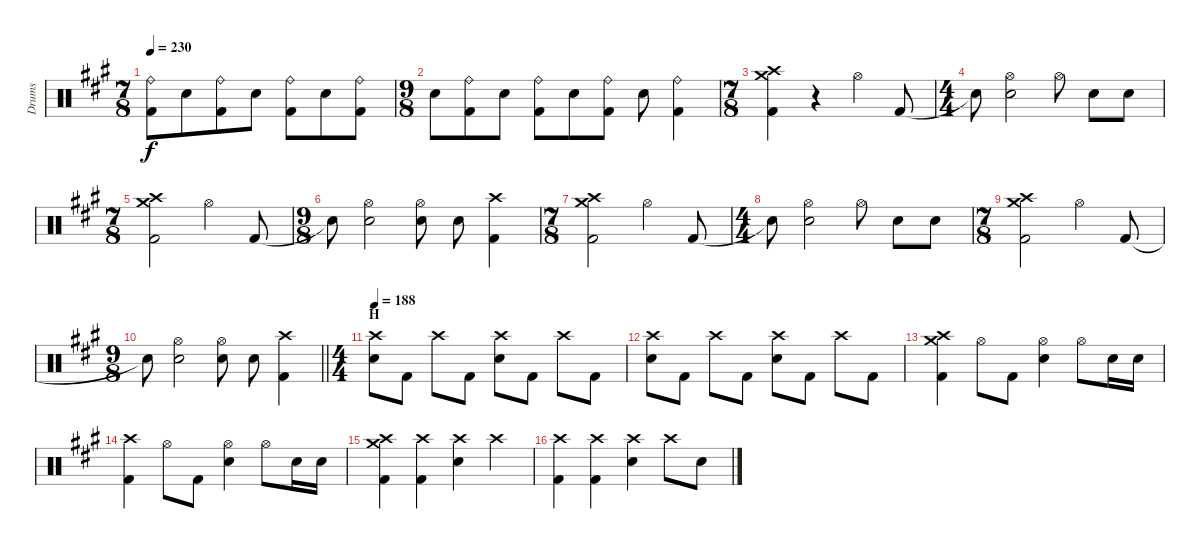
\track ("Drums" "Drums") {instrument percussion}
\staff {score}
\articulation defaults
\ts (7 8)
\tempo 230
\clef neutral
\ks f#minor
("Ride (bell)" "Kick (hit) 2").8{dy f} "Electric Snare (hit)".8 ("Ride (bell)" "Kick (hit) 2").8 "Electric Snare (hit)".8 ("Ride (bell)" "Kick (hit) 2").8 "Electric Snare (hit)".8 ("Ride (bell)" "Kick (hit) 2").8 |
\ts (9 8)
"Electric Snare (hit)".8 ("Ride (bell)" "Kick (hit) 2").8 "Electric Snare (hit)".8 ("Ride (bell)" "Kick (hit) 2").8 "Electric Snare (hit)".8 ("Ride (bell)" "Kick (hit) 2").8 "Electric Snare (hit)".8 ("Ride (bell)" "Kick (hit) 2").4 |
\ts (7 8)
("Crash medium (hit)" "Crash high (hit)" "Kick (hit) 2").4 r.4{volume 0} "Hi-Hat (open)".4{volume 14} "Kick (hit) 2".8 |
\ts (4 4)
"Snare (hit)"{t}.8 ("Hi-Hat (open)" "Electric Snare (hit)").2 "Hi-Hat (open)".8 "Electric Snare (hit)".8 "Electric Snare (hit)".8 |
\ts (7 8)
("Crash medium (hit)" "Crash high (hit)" "Kick (hit) 2").2 "Hi-Hat (open)".4 "Kick (hit) 2".8 |
\ts (9 8)
"Snare (hit)"{t}.8 ("Hi-Hat (open)" "Electric Snare (hit)").2 ("Hi-Hat (open)" "Electric Snare (hit)").8 "Electric Snare (hit)".8 ("Crash high (hit)" "Kick (hit) 2").4 |
\ts (7 8)
("Crash medium (hit)" "Crash high (hit)" "Kick (hit) 2").2 "Hi-Hat (open)".4 "Kick (hit) 2".8 |
\ts (4 4)
"Snare (hit)"{t}.8 ("Hi-Hat (open)" "Electric Snare (hit)").2 "Hi-Hat (open)".8 "Electric Snare (hit)".8 "Electric Snare (hit)".8 |
\ts (7 8)
("Crash medium (hit)" "Crash high (hit)" "Kick (hit) 2").2 "Hi-Hat (open)".4 "Kick (hit) 2".8 |
\ts (9 8)
\barLineRight lightlight "Snare (hit)"{t}.8
("Hi-Hat (open)" "Electric Snare (hit)").2 ("Hi-Hat (open)" "Electric Snare (hit)").8 "Electric Snare (hit)".8 ("Crash high (hit)" "Kick (hit) 2").4 |
\ts (4 4)
\section ("" "H")
\tempo 188
("Crash high (hit)" "Electric Snare (hit)").8 "Kick (hit) 2".8 "Crash high (hit)".8 "Kick (hit) 2".8 ("Crash high (hit)" "Electric Snare (hit)").8 "Kick (hit) 2".8 "Crash high (hit)".8 "Kick (hit) 2".8 |
("Crash high (hit)" "Electric Snare (hit)").8 "Kick (hit) 2".8 "Crash high (hit)".8 "Kick (hit) 2".8 ("Crash high (hit)" "Electric Snare (hit)").8 "Kick (hit) 2".8 "Crash high (hit)".8 "Kick (hit) 2".8 |
("Crash medium (hit)" "Crash high (hit)" "Kick (hit) 2").4 "Hi-Hat (open)".8 "Kick (hit) 2".8 ("Hi-Hat (open)" "Electric Snare (hit)").4 "Hi-Hat (open)".8 "Electric Snare (hit)".16 "Electric Snare (hit)".16 |
("Crash high (hit)" "Kick (hit) 2").4 "Hi-Hat (open)".8 "Kick (hit) 2".8 ("Hi-Hat (open)" "Electric Snare (hit)").4 "Hi-Hat (open)".8 "Electric Snare (hit)".16 "Electric Snare (hit)".16 |
("Crash medium (hit)" "Crash high (hit)" "Kick (hit) 2").4 ("Crash high (hit)" "Kick (hit) 2").4 ("Crash high (hit)" "Electric Snare (hit)").4 "Crash high (hit)".4 |
("Crash high (hit)" "Kick (hit) 2").4 ("Crash high (hit)" "Kick (hit) 2").4 ("Crash high (hit)" "Electric Snare (hit)").4 "Crash high (hit)".8 "Electric Snare (hit)".8
